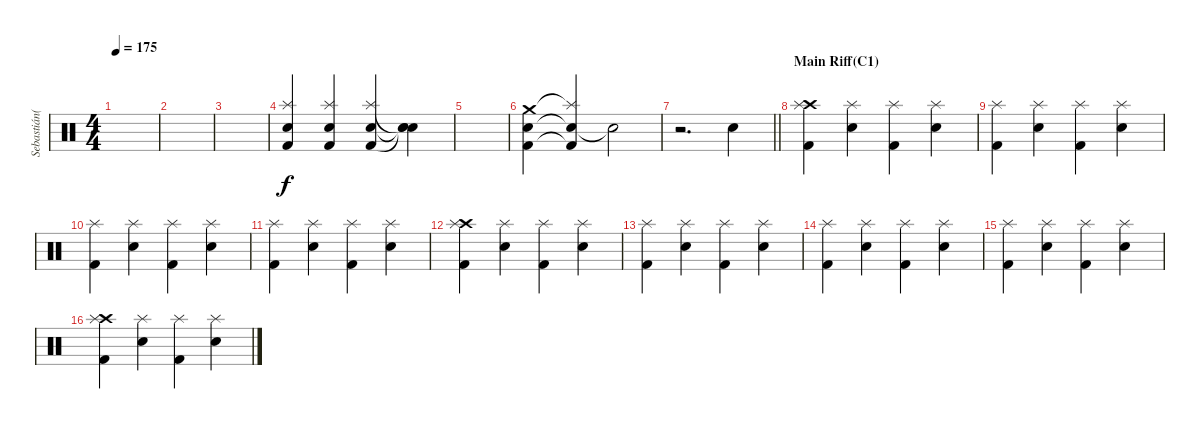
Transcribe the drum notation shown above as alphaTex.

\track ("Sebastián(Bateria)" "Sebastián(") {instrument percussion}
\staff {score}
\articulation defaults
\ts (4 4)
\tempo 175
\clef neutral
\ks c
|
|
|
("Electric Snare (hit)" "Splash (hit)" "Kick (hit) 2").4 ("Electric Snare (hit)" "Splash (hit)" "Kick (hit) 2").4 ("Electric Snare (hit)" "Splash (hit)" "Kick (hit) 2").4 ("Snare (hit)"{t} "Snare (hit)"{t} "Snare (hit)"{t}).4 |
|
("Electric Snare (hit)" "Crash medium (hit)" "Kick (hit) 2").4 ("Electric Snare (hit)"{t} "Splash (hit)"{t} "Kick (hit) 2"{t}).4 "Snare (hit)"{t}.2 |
\barLineRight lightlight
r.2{d} "Snare (hit) 2".4 |
\section ("" "Main Riff(C1)")
("Crash high (hit)" "Splash (hit)" "Kick (hit) 2").4 ("Snare (hit) 2" "Splash (hit)").4 ("Splash (hit)" "Kick (hit) 2").4 ("Snare (hit) 2" "Splash (hit)").4 |
("Splash (hit)" "Kick (hit) 2").4 ("Snare (hit) 2" "Splash (hit)").4 ("Splash (hit)" "Kick (hit) 2").4 ("Snare (hit) 2" "Splash (hit)").4 |
("Splash (hit)" "Kick (hit) 2").4 ("Snare (hit) 2" "Splash (hit)").4 ("Splash (hit)" "Kick (hit) 2").4 ("Snare (hit) 2" "Splash (hit)").4 |
("Splash (hit)" "Kick (hit) 2").4 ("Snare (hit) 2" "Splash (hit)").4 ("Splash (hit)" "Kick (hit) 2").4 ("Snare (hit) 2" "Splash (hit)").4 |
("Crash high (hit)" "Splash (hit)" "Kick (hit) 2").4 ("Snare (hit) 2" "Splash (hit)").4 ("Splash (hit)" "Kick (hit) 2").4 ("Snare (hit) 2" "Splash (hit)").4 |
("Splash (hit)" "Kick (hit) 2").4 ("Snare (hit) 2" "Splash (hit)").4 ("Splash (hit)" "Kick (hit) 2").4 ("Snare (hit) 2" "Splash (hit)").4 |
("Splash (hit)" "Kick (hit) 2").4 ("Snare (hit) 2" "Splash (hit)").4 ("Splash (hit)" "Kick (hit) 2").4 ("Snare (hit) 2" "Splash (hit)").4 |
("Splash (hit)" "Kick (hit) 2").4 ("Snare (hit) 2" "Splash (hit)").4 ("Splash (hit)" "Kick (hit) 2").4 ("Snare (hit) 2" "Splash (hit)").4 |
("Crash high (hit)" "Splash (hit)" "Kick (hit) 2").4 ("Snare (hit) 2" "Splash (hit)").4 ("Splash (hit)" "Kick (hit) 2").4 ("Snare (hit) 2" "Splash (hit)").4
